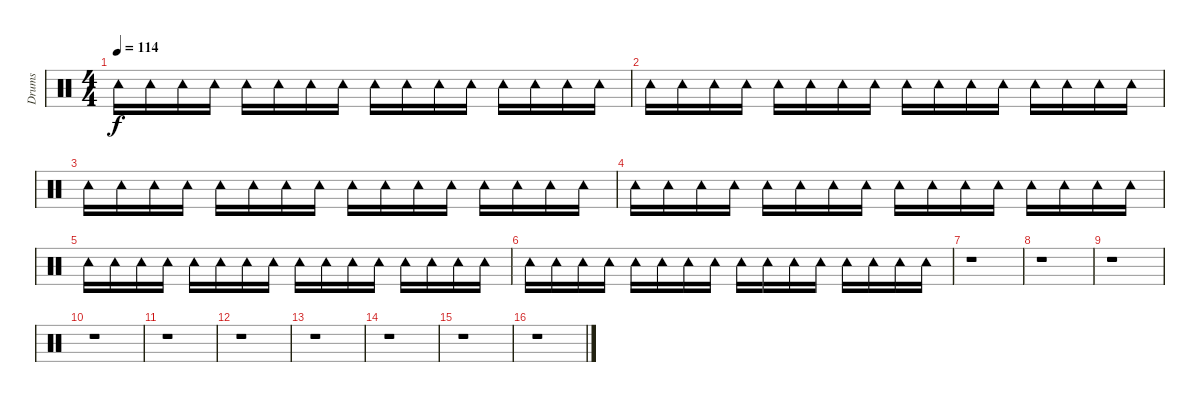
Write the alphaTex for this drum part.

\track ("Drums" "Drums") {instrument percussion}
\staff {score}
\articulation defaults
\ts (4 4)
\tempo 114
\clef neutral
\ks c "Tambourine (hit)".16{dy f} "Tambourine (hit)".16 "Tambourine (hit)".16 "Tambourine (hit)".16 "Tambourine (hit)".16 "Tambourine (hit)".16 "Tambourine (hit)".16 "Tambourine (hit)".16 "Tambourine (hit)".16 "Tambourine (hit)".16 "Tambourine (hit)".16 "Tambourine (hit)".16 "Tambourine (hit)".16 "Tambourine (hit)".16 "Tambourine (hit)".16 "Tambourine (hit)".16
|
"Tambourine (hit)".16 "Tambourine (hit)".16 "Tambourine (hit)".16 "Tambourine (hit)".16 "Tambourine (hit)".16 "Tambourine (hit)".16 "Tambourine (hit)".16 "Tambourine (hit)".16 "Tambourine (hit)".16 "Tambourine (hit)".16 "Tambourine (hit)".16 "Tambourine (hit)".16 "Tambourine (hit)".16 "Tambourine (hit)".16 "Tambourine (hit)".16 "Tambourine (hit)".16 |
"Tambourine (hit)".16 "Tambourine (hit)".16 "Tambourine (hit)".16 "Tambourine (hit)".16 "Tambourine (hit)".16 "Tambourine (hit)".16 "Tambourine (hit)".16 "Tambourine (hit)".16 "Tambourine (hit)".16 "Tambourine (hit)".16 "Tambourine (hit)".16 "Tambourine (hit)".16 "Tambourine (hit)".16 "Tambourine (hit)".16 "Tambourine (hit)".16 "Tambourine (hit)".16 |
"Tambourine (hit)".16 "Tambourine (hit)".16 "Tambourine (hit)".16 "Tambourine (hit)".16 "Tambourine (hit)".16 "Tambourine (hit)".16 "Tambourine (hit)".16 "Tambourine (hit)".16 "Tambourine (hit)".16 "Tambourine (hit)".16 "Tambourine (hit)".16 "Tambourine (hit)".16 "Tambourine (hit)".16 "Tambourine (hit)".16 "Tambourine (hit)".16 "Tambourine (hit)".16 |
"Tambourine (hit)".16{volume 0} "Tambourine (hit)".16 "Tambourine (hit)".16 "Tambourine (hit)".16 "Tambourine (hit)".16 "Tambourine (hit)".16 "Tambourine (hit)".16 "Tambourine (hit)".16 "Tambourine (hit)".16 "Tambourine (hit)".16 "Tambourine (hit)".16 "Tambourine (hit)".16 "Tambourine (hit)".16 "Tambourine (hit)".16 "Tambourine (hit)".16 "Tambourine (hit)".16 |
"Tambourine (hit)".16 "Tambourine (hit)".16 "Tambourine (hit)".16 "Tambourine (hit)".16 "Tambourine (hit)".16 "Tambourine (hit)".16 "Tambourine (hit)".16 "Tambourine (hit)".16 "Tambourine (hit)".16 "Tambourine (hit)".16 "Tambourine (hit)".16 "Tambourine (hit)".16 "Tambourine (hit)".16 "Tambourine (hit)".16 "Tambourine (hit)".16 "Tambourine (hit)".16 |
r.1 |
r.1 |
r.1 |
r.1 |
r.1 |
r.1 |
r.1 |
r.1 |
r.1 |
r.1
